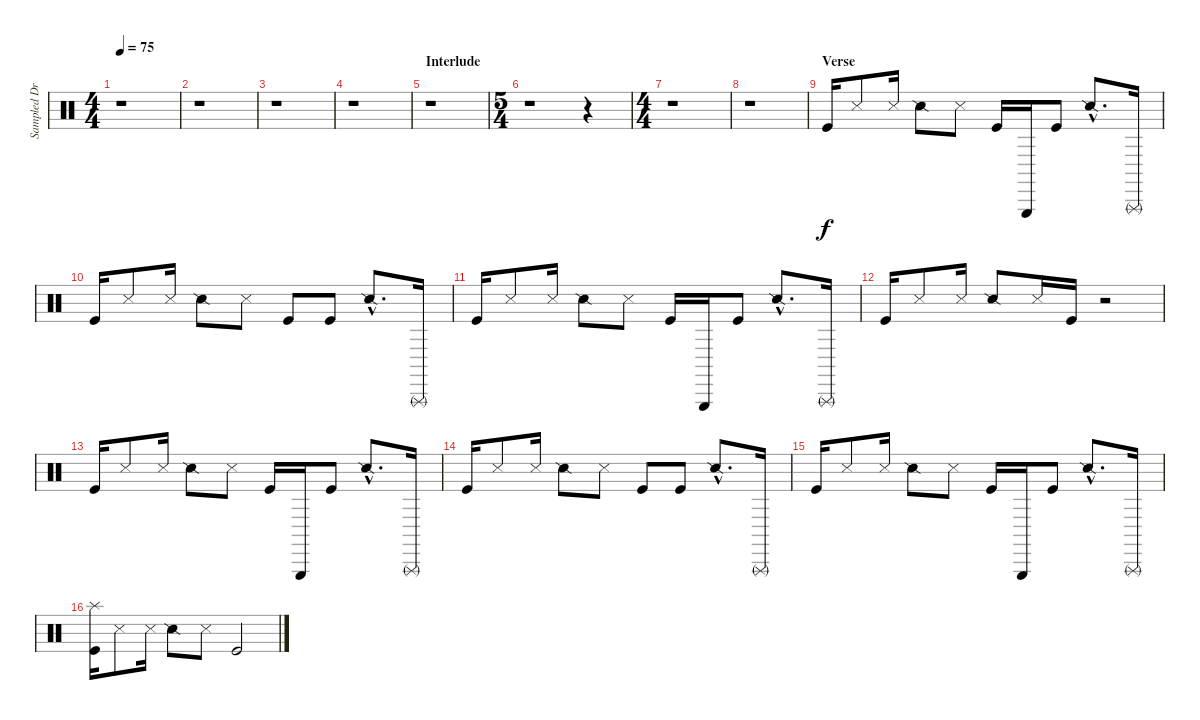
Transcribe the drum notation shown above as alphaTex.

\track ("Sampled Drums" "Sampled Dr") {instrument percussion}
\staff {score}
\articulation defaults
\ts (4 4)
\tempo 75
\clef neutral
\ks c
r.1{dy f} |
r.1 |
r.1 |
r.1 |
\section ("" "Interlude")
r.1 |
\ts (5 4)
r.1 r.4 |
\ts (4 4)
r.1 |
r.1 |
\section ("" "Verse")
"Kick (hit)".16 "Snare (side stick) 3".8 "Snare (side stick) 3".16 "Snare (side stick) 2".8 "Snare (side stick) 3".8 "Kick (hit)".16 "Triangle (hit)".16 "Kick (hit)".8 "Snare (side stick) 2"{hac}.8{d} "Triangle (rnute)".16 |
"Kick (hit)".16 "Snare (side stick) 3".8 "Snare (side stick) 3".16 "Snare (side stick) 2".8 "Snare (side stick) 3".8 "Kick (hit)".8 "Kick (hit)".8 "Snare (side stick) 2"{hac}.8{d} "Triangle (rnute)".16 |
"Kick (hit)".16 "Snare (side stick) 3".8 "Snare (side stick) 3".16 "Snare (side stick) 2".8 "Snare (side stick) 3".8 "Kick (hit)".16 "Triangle (hit)".16 "Kick (hit)".8 "Snare (side stick) 2"{hac}.8{d} "Triangle (rnute)".16 |
"Kick (hit)".16 "Snare (side stick) 3".8 "Snare (side stick) 3".16 "Snare (side stick) 2".8 "Snare (side stick) 3".16 "Kick (hit)".16 r.2 |
"Kick (hit)".16 "Snare (side stick) 3".8 "Snare (side stick) 3".16 "Snare (side stick) 2".8 "Snare (side stick) 3".8 "Kick (hit)".16 "Triangle (hit)".16 "Kick (hit)".8 "Snare (side stick) 2"{hac}.8{d} "Triangle (rnute)".16 |
"Kick (hit)".16 "Snare (side stick) 3".8 "Snare (side stick) 3".16 "Snare (side stick) 2".8 "Snare (side stick) 3".8 "Kick (hit)".8 "Kick (hit)".8 "Snare (side stick) 2"{hac}.8{d} "Triangle (rnute)".16 |
"Kick (hit)".16 "Snare (side stick) 3".8 "Snare (side stick) 3".16 "Snare (side stick) 2".8 "Snare (side stick) 3".8 "Kick (hit)".16 "Triangle (hit)".16 "Kick (hit)".8 "Snare (side stick) 2"{hac}.8{d} "Triangle (rnute)".16 |
("Splash (hit)" "Kick (hit)").16 "Snare (side stick) 3".8 "Snare (side stick) 3".16 "Snare (side stick) 2".8 "Snare (side stick) 3".8 "Kick (hit)".2
